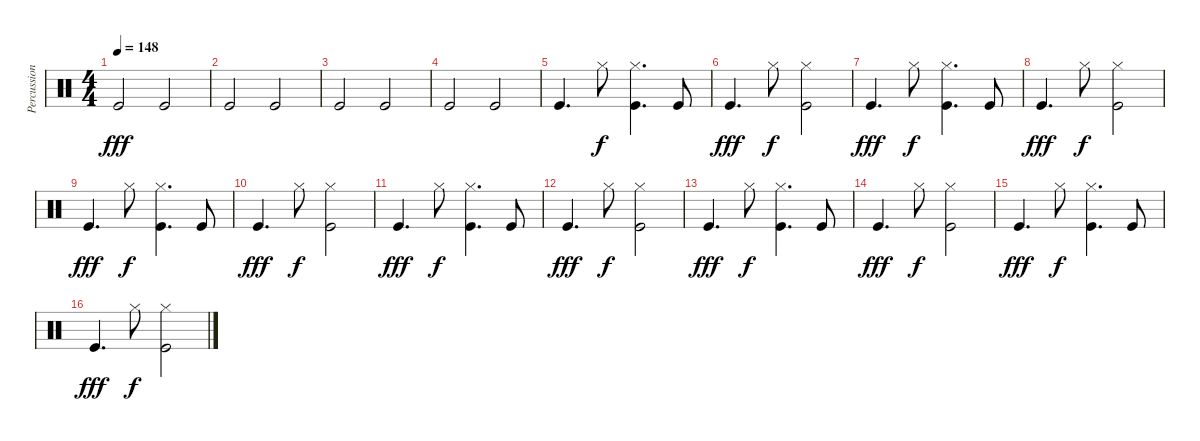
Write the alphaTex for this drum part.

\track ("Percussion" "Percussion") {instrument percussion}
\staff {score}
\articulation defaults
\ts (4 4)
\tempo 148
\clef neutral
\ks c "Kick (hit)".2{dy fff} "Kick (hit)".2
|
"Kick (hit)".2 "Kick (hit)".2 |
"Kick (hit)".2 "Kick (hit)".2 |
"Kick (hit)".2 "Kick (hit)".2 |
"Kick (hit)".4{d} "Hi-Hat (closed)".8{dy f} ("Hi-Hat (closed)" "Kick (hit)").4{d} "Kick (hit)".8 |
"Kick (hit)".4{d dy fff} "Hi-Hat (closed)".8{dy f} ("Kick (hit)" "Hi-Hat (closed)").2 |
"Kick (hit)".4{d dy fff} "Hi-Hat (closed)".8{dy f} ("Hi-Hat (closed)" "Kick (hit)").4{d} "Kick (hit)".8 |
"Kick (hit)".4{d dy fff} "Hi-Hat (closed)".8{dy f} ("Kick (hit)" "Hi-Hat (closed)").2 |
"Kick (hit)".4{d dy fff} "Hi-Hat (closed)".8{dy f} ("Hi-Hat (closed)" "Kick (hit)").4{d} "Kick (hit)".8 |
"Kick (hit)".4{d dy fff} "Hi-Hat (closed)".8{dy f} ("Kick (hit)" "Hi-Hat (closed)").2 |
"Kick (hit)".4{d dy fff} "Hi-Hat (closed)".8{dy f} ("Hi-Hat (closed)" "Kick (hit)").4{d} "Kick (hit)".8 |
"Kick (hit)".4{d dy fff} "Hi-Hat (closed)".8{dy f} ("Kick (hit)" "Hi-Hat (closed)").2 |
"Kick (hit)".4{d dy fff} "Hi-Hat (closed)".8{dy f} ("Hi-Hat (closed)" "Kick (hit)").4{d} "Kick (hit)".8 |
"Kick (hit)".4{d dy fff} "Hi-Hat (closed)".8{dy f} ("Kick (hit)" "Hi-Hat (closed)").2 |
"Kick (hit)".4{d dy fff} "Hi-Hat (closed)".8{dy f} ("Hi-Hat (closed)" "Kick (hit)").4{d} "Kick (hit)".8 |
"Kick (hit)".4{d dy fff} "Hi-Hat (closed)".8{dy f} ("Kick (hit)" "Hi-Hat (closed)").2
